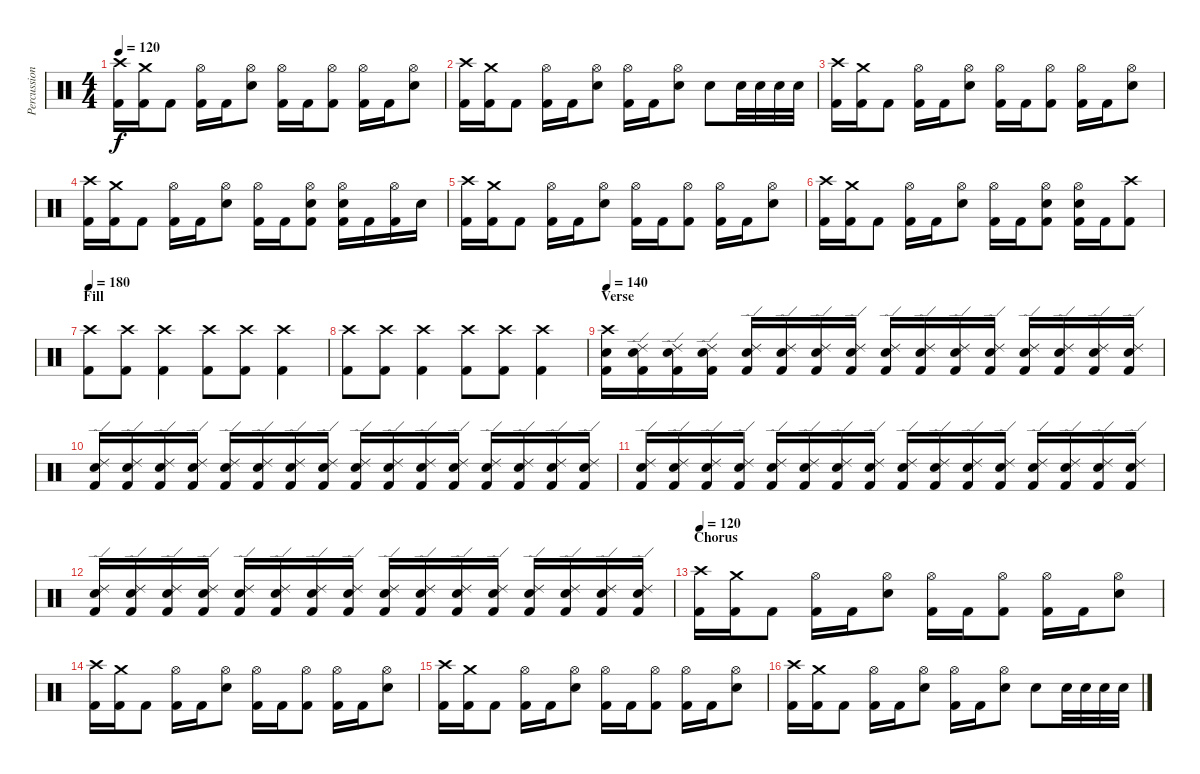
\track ("Percussion" "Percussion") {instrument percussion}
\staff {score}
\articulation defaults
\ts (4 4)
\tempo 120
\clef neutral
\ks c
("Crash high (hit)" "Kick (hit) 2").16{dy f} ("Crash medium (hit)" "Kick (hit) 2").16 "Kick (hit) 2".8 ("Hi-Hat (open)" "Kick (hit) 2").16 "Kick (hit) 2".16 ("Hi-Hat (open)" "Electric Snare (hit)").8 ("Hi-Hat (open)" "Kick (hit) 2").16 "Kick (hit) 2".16 ("Hi-Hat (open)" "Kick (hit) 2").8 ("Hi-Hat (open)" "Kick (hit) 2").16 "Kick (hit) 2".16 ("Hi-Hat (open)" "Electric Snare (hit)").8 |
("Crash high (hit)" "Kick (hit) 2").16 ("Crash medium (hit)" "Kick (hit) 2").16 "Kick (hit) 2".8 ("Hi-Hat (open)" "Kick (hit) 2").16 "Kick (hit) 2".16 ("Hi-Hat (open)" "Electric Snare (hit)").8 ("Hi-Hat (open)" "Kick (hit) 2").16 "Kick (hit) 2".16 ("Hi-Hat (open)" "Electric Snare (hit)").8 "Electric Snare (hit)".8 "Electric Snare (hit)".32 "Electric Snare (hit)".32 "Electric Snare (hit)".32 "Electric Snare (hit)".32 |
("Crash high (hit)" "Kick (hit) 2").16 ("Crash medium (hit)" "Kick (hit) 2").16 "Kick (hit) 2".8 ("Hi-Hat (open)" "Kick (hit) 2").16 "Kick (hit) 2".16 ("Hi-Hat (open)" "Electric Snare (hit)").8 ("Hi-Hat (open)" "Kick (hit) 2").16 "Kick (hit) 2".16 ("Hi-Hat (open)" "Kick (hit) 2").8 ("Hi-Hat (open)" "Kick (hit) 2").16 "Kick (hit) 2".16 ("Hi-Hat (open)" "Electric Snare (hit)").8 |
("Crash high (hit)" "Kick (hit) 2").16 ("Crash medium (hit)" "Kick (hit) 2").16 "Kick (hit) 2".8 ("Hi-Hat (open)" "Kick (hit) 2").16 "Kick (hit) 2".16 ("Hi-Hat (open)" "Electric Snare (hit)").8 ("Hi-Hat (open)" "Kick (hit) 2").16 "Kick (hit) 2".16 ("Hi-Hat (open)" "Electric Snare (hit)" "Kick (hit) 2").8 ("Hi-Hat (open)" "Electric Snare (hit)" "Kick (hit) 2").16 "Kick (hit) 2".16 ("Hi-Hat (open)" "Kick (hit) 2").16 "Electric Snare (hit)".16 |
("Crash high (hit)" "Kick (hit) 2").16 ("Crash medium (hit)" "Kick (hit) 2").16 "Kick (hit) 2".8 ("Hi-Hat (open)" "Kick (hit) 2").16 "Kick (hit) 2".16 ("Hi-Hat (open)" "Electric Snare (hit)").8 ("Hi-Hat (open)" "Kick (hit) 2").16 "Kick (hit) 2".16 ("Hi-Hat (open)" "Kick (hit) 2").8 ("Hi-Hat (open)" "Kick (hit) 2").16 "Kick (hit) 2".16 ("Hi-Hat (open)" "Electric Snare (hit)").8 |
("Crash high (hit)" "Kick (hit) 2").16 ("Crash medium (hit)" "Kick (hit) 2").16 "Kick (hit) 2".8 ("Hi-Hat (open)" "Kick (hit) 2").16 "Kick (hit) 2".16 ("Hi-Hat (open)" "Electric Snare (hit)").8 ("Hi-Hat (open)" "Kick (hit) 2").16 "Kick (hit) 2".16 ("Hi-Hat (open)" "Electric Snare (hit)" "Kick (hit) 2").8 ("Hi-Hat (open)" "Electric Snare (hit)" "Kick (hit) 2").16 "Kick (hit) 2".16 ("Crash high (hit)" "Kick (hit) 2").8 |
\section ("" "Fill")
\tempo 180
("Crash high (hit)" "Kick (hit) 2").8 ("Crash high (hit)" "Kick (hit) 2").8 ("Crash high (hit)" "Kick (hit) 2").4 ("Crash high (hit)" "Kick (hit) 2").8 ("Crash high (hit)" "Kick (hit) 2").8 ("Crash high (hit)" "Kick (hit) 2").4 |
("Crash high (hit)" "Kick (hit) 2").8 ("Crash high (hit)" "Kick (hit) 2").8 ("Crash high (hit)" "Kick (hit) 2").4 ("Crash high (hit)" "Kick (hit) 2").8 ("Crash high (hit)" "Kick (hit) 2").8 ("Crash high (hit)" "Kick (hit) 2").4 |
\section ("" "Verse")
\tempo 140
("Crash high (hit)" "Snare (hit) 2" "Kick (hit) 2").16 ("Ride (edge) 2" "Snare (hit) 2" "Kick (hit) 2").16 ("Ride (edge) 2" "Snare (hit) 2" "Kick (hit) 2").16 ("Ride (edge) 2" "Snare (hit) 2" "Kick (hit) 2").16 ("Ride (edge) 2" "Snare (hit) 2" "Kick (hit) 2").16 ("Ride (edge) 2" "Snare (hit) 2" "Kick (hit) 2").16 ("Ride (edge) 2" "Snare (hit) 2" "Kick (hit) 2").16 ("Ride (edge) 2" "Snare (hit) 2" "Kick (hit) 2").16 ("Ride (edge) 2" "Snare (hit) 2" "Kick (hit) 2").16 ("Ride (edge) 2" "Snare (hit) 2" "Kick (hit) 2").16 ("Ride (edge) 2" "Snare (hit) 2" "Kick (hit) 2").16 ("Ride (edge) 2" "Snare (hit) 2" "Kick (hit) 2").16 ("Ride (edge) 2" "Snare (hit) 2" "Kick (hit) 2").16 ("Ride (edge) 2" "Snare (hit) 2" "Kick (hit) 2").16 ("Ride (edge) 2" "Snare (hit) 2" "Kick (hit) 2").16 ("Ride (edge) 2" "Snare (hit) 2" "Kick (hit) 2").16 |
("Ride (edge) 2" "Snare (hit) 2" "Kick (hit) 2").16 ("Ride (edge) 2" "Snare (hit) 2" "Kick (hit) 2").16 ("Ride (edge) 2" "Snare (hit) 2" "Kick (hit) 2").16 ("Ride (edge) 2" "Snare (hit) 2" "Kick (hit) 2").16 ("Ride (edge) 2" "Snare (hit) 2" "Kick (hit) 2").16 ("Ride (edge) 2" "Snare (hit) 2" "Kick (hit) 2").16 ("Ride (edge) 2" "Snare (hit) 2" "Kick (hit) 2").16 ("Ride (edge) 2" "Snare (hit) 2" "Kick (hit) 2").16 ("Ride (edge) 2" "Snare (hit) 2" "Kick (hit) 2").16 ("Ride (edge) 2" "Snare (hit) 2" "Kick (hit) 2").16 ("Ride (edge) 2" "Snare (hit) 2" "Kick (hit) 2").16 ("Ride (edge) 2" "Snare (hit) 2" "Kick (hit) 2").16 ("Ride (edge) 2" "Snare (hit) 2" "Kick (hit) 2").16 ("Ride (edge) 2" "Snare (hit) 2" "Kick (hit) 2").16 ("Ride (edge) 2" "Snare (hit) 2" "Kick (hit) 2").16 ("Ride (edge) 2" "Snare (hit) 2" "Kick (hit) 2").16 |
("Ride (edge) 2" "Snare (hit) 2" "Kick (hit) 2").16 ("Ride (edge) 2" "Snare (hit) 2" "Kick (hit) 2").16 ("Ride (edge) 2" "Snare (hit) 2" "Kick (hit) 2").16 ("Ride (edge) 2" "Snare (hit) 2" "Kick (hit) 2").16 ("Ride (edge) 2" "Snare (hit) 2" "Kick (hit) 2").16 ("Ride (edge) 2" "Snare (hit) 2" "Kick (hit) 2").16 ("Ride (edge) 2" "Snare (hit) 2" "Kick (hit) 2").16 ("Ride (edge) 2" "Snare (hit) 2" "Kick (hit) 2").16 ("Ride (edge) 2" "Snare (hit) 2" "Kick (hit) 2").16 ("Ride (edge) 2" "Snare (hit) 2" "Kick (hit) 2").16 ("Ride (edge) 2" "Snare (hit) 2" "Kick (hit) 2").16 ("Ride (edge) 2" "Snare (hit) 2" "Kick (hit) 2").16 ("Ride (edge) 2" "Snare (hit) 2" "Kick (hit) 2").16 ("Ride (edge) 2" "Snare (hit) 2" "Kick (hit) 2").16 ("Ride (edge) 2" "Snare (hit) 2" "Kick (hit) 2").16 ("Ride (edge) 2" "Snare (hit) 2" "Kick (hit) 2").16 |
("Ride (edge) 2" "Snare (hit) 2" "Kick (hit) 2").16 ("Ride (edge) 2" "Snare (hit) 2" "Kick (hit) 2").16 ("Ride (edge) 2" "Snare (hit) 2" "Kick (hit) 2").16 ("Ride (edge) 2" "Snare (hit) 2" "Kick (hit) 2").16 ("Ride (edge) 2" "Snare (hit) 2" "Kick (hit) 2").16 ("Ride (edge) 2" "Snare (hit) 2" "Kick (hit) 2").16 ("Ride (edge) 2" "Snare (hit) 2" "Kick (hit) 2").16 ("Ride (edge) 2" "Snare (hit) 2" "Kick (hit) 2").16 ("Ride (edge) 2" "Snare (hit) 2" "Kick (hit) 2").16 ("Ride (edge) 2" "Snare (hit) 2" "Kick (hit) 2").16 ("Ride (edge) 2" "Snare (hit) 2" "Kick (hit) 2").16 ("Ride (edge) 2" "Snare (hit) 2" "Kick (hit) 2").16 ("Ride (edge) 2" "Snare (hit) 2" "Kick (hit) 2").16 ("Ride (edge) 2" "Snare (hit) 2" "Kick (hit) 2").16 ("Ride (edge) 2" "Snare (hit) 2" "Kick (hit) 2").16 ("Ride (edge) 2" "Snare (hit) 2" "Kick (hit) 2").16 |
\section ("" "Chorus")
\tempo 120
("Crash high (hit)" "Kick (hit) 2").16 ("Crash medium (hit)" "Kick (hit) 2").16 "Kick (hit) 2".8 ("Hi-Hat (open)" "Kick (hit) 2").16 "Kick (hit) 2".16 ("Hi-Hat (open)" "Electric Snare (hit)").8 ("Hi-Hat (open)" "Kick (hit) 2").16 "Kick (hit) 2".16 ("Hi-Hat (open)" "Kick (hit) 2").8 ("Hi-Hat (open)" "Kick (hit) 2").16 "Kick (hit) 2".16 ("Hi-Hat (open)" "Electric Snare (hit)").8 |
("Crash high (hit)" "Kick (hit) 2").16 ("Crash medium (hit)" "Kick (hit) 2").16 "Kick (hit) 2".8 ("Hi-Hat (open)" "Kick (hit) 2").16 "Kick (hit) 2".16 ("Hi-Hat (open)" "Electric Snare (hit)").8 ("Hi-Hat (open)" "Kick (hit) 2").16 "Kick (hit) 2".16 ("Hi-Hat (open)" "Kick (hit) 2").8 ("Hi-Hat (open)" "Kick (hit) 2").16 "Kick (hit) 2".16 ("Hi-Hat (open)" "Electric Snare (hit)").8 |
("Crash high (hit)" "Kick (hit) 2").16 ("Crash medium (hit)" "Kick (hit) 2").16 "Kick (hit) 2".8 ("Hi-Hat (open)" "Kick (hit) 2").16 "Kick (hit) 2".16 ("Hi-Hat (open)" "Electric Snare (hit)").8 ("Hi-Hat (open)" "Kick (hit) 2").16 "Kick (hit) 2".16 ("Hi-Hat (open)" "Kick (hit) 2").8 ("Hi-Hat (open)" "Kick (hit) 2").16 "Kick (hit) 2".16 ("Hi-Hat (open)" "Electric Snare (hit)").8 |
("Crash high (hit)" "Kick (hit) 2").16 ("Crash medium (hit)" "Kick (hit) 2").16 "Kick (hit) 2".8 ("Hi-Hat (open)" "Kick (hit) 2").16 "Kick (hit) 2".16 ("Hi-Hat (open)" "Electric Snare (hit)").8 ("Hi-Hat (open)" "Kick (hit) 2").16 "Kick (hit) 2".16 ("Hi-Hat (open)" "Electric Snare (hit)").8 "Electric Snare (hit)".8 "Electric Snare (hit)".32 "Electric Snare (hit)".32 "Electric Snare (hit)".32 "Electric Snare (hit)".32
